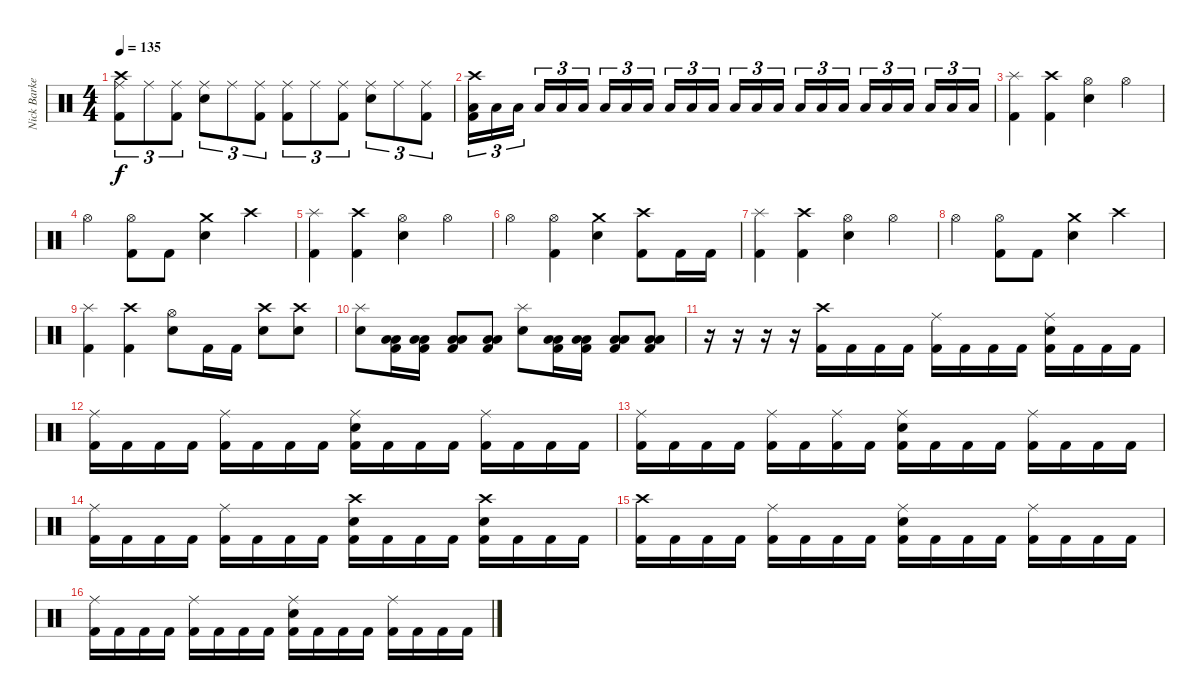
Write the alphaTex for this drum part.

\track ("Nick Barker" "Nick Barke") {instrument percussion}
\staff {score}
\articulation defaults
\ts (4 4)
\tempo 135
\clef neutral
\ks c
("Crash high (hit)" "Ride (middle)" "Kick (hit) 2").8{tu (3 2) dy f} "Ride (middle)".8{tu (3 2)} ("Ride (middle)" "Kick (hit) 2").8{tu (3 2)} ("Ride (middle)" "Electric Snare (hit)").8{tu (3 2)} "Ride (middle)".8{tu (3 2)} ("Ride (middle)" "Kick (hit) 2").8{tu (3 2)} ("Ride (middle)" "Kick (hit) 2").8{tu (3 2)} "Ride (middle)".8{tu (3 2)} ("Ride (middle)" "Kick (hit) 2").8{tu (3 2)} ("Ride (middle)" "Electric Snare (hit)").8{tu (3 2)} "Ride (middle)".8{tu (3 2)} ("Ride (middle)" "Kick (hit) 2").8{tu (3 2)} |
("Crash high (hit)" "Low Tom (hit)" "Kick (hit) 2").16{tu (3 2)} "Low Tom (hit)".16{tu (3 2)} "Low Tom (hit)".16{tu (3 2)} "Low Tom (hit)".16{tu (3 2)} "Low Tom (hit)".16{tu (3 2)} "Low Tom (hit)".16{tu (3 2)} "Low Tom (hit)".16{tu (3 2)} "Low Tom (hit)".16{tu (3 2)} "Low Tom (hit)".16{tu (3 2)} "Low Tom (hit)".16{tu (3 2)} "Low Tom (hit)".16{tu (3 2)} "Low Tom (hit)".16{tu (3 2)} "Low Tom (hit)".16{tu (3 2)} "Low Tom (hit)".16{tu (3 2)} "Low Tom (hit)".16{tu (3 2)} "Low Tom (hit)".16{tu (3 2)} "Low Tom (hit)".16{tu (3 2)} "Low Tom (hit)".16{tu (3 2)} "Low Tom (hit)".16{tu (3 2)} "Low Tom (hit)".16{tu (3 2)} "Low Tom (hit)".16{tu (3 2)} "Low Tom (hit)".16{tu (3 2)} "Low Tom (hit)".16{tu (3 2)} "Low Tom (hit)".16{tu (3 2)} |
\section ("" "")
("Splash (hit)" "Kick (hit) 2").4 ("Crash high (hit)" "Kick (hit) 2").4 ("Hi-Hat (open)" "Electric Snare (hit)").4 "Hi-Hat (open)".4 |
"Hi-Hat (open)".4 ("Hi-Hat (open)" "Kick (hit) 2").8 "Kick (hit) 2".8 ("Crash medium (hit)" "Electric Snare (hit)").4 "Crash high (hit)".4 |
("Splash (hit)" "Kick (hit) 2").4 ("Crash high (hit)" "Kick (hit) 2").4 ("Hi-Hat (open)" "Electric Snare (hit)").4 "Hi-Hat (open)".4 |
"Hi-Hat (open)".4 ("Hi-Hat (open)" "Kick (hit) 2").4 ("Crash medium (hit)" "Electric Snare (hit)").4 ("Crash high (hit)" "Kick (hit) 2").8 "Kick (hit) 2".16 "Kick (hit) 2".16 |
("Splash (hit)" "Kick (hit) 2").4 ("Crash high (hit)" "Kick (hit) 2").4 ("Hi-Hat (open)" "Electric Snare (hit)").4 "Hi-Hat (open)".4 |
"Hi-Hat (open)".4 ("Hi-Hat (open)" "Kick (hit) 2").8 "Kick (hit) 2".8 ("Crash medium (hit)" "Electric Snare (hit)").4 "Crash high (hit)".4 |
("Splash (hit)" "Kick (hit) 2").4 ("Crash high (hit)" "Kick (hit) 2").4 ("Hi-Hat (open)" "Electric Snare (hit)").8 "Kick (hit) 2".16 "Kick (hit) 2".16 ("Crash high (hit)" "Electric Snare (hit)").8 ("Crash high (hit)" "Electric Snare (hit)").8 |
("Splash (hit)" "Electric Snare (hit)").8 ("Low Floor Tom (hit)" "Low Tom (hit)" "Kick (hit) 2").16 ("Low Floor Tom (hit)" "Low Tom (hit)" "Kick (hit) 2").16 ("Low Floor Tom (hit)" "Low Tom (hit)" "Kick (hit) 2").8 ("Low Floor Tom (hit)" "Low Tom (hit)" "Kick (hit) 2").8 ("Splash (hit)" "Electric Snare (hit)").8 ("Low Floor Tom (hit)" "Low Tom (hit)" "Kick (hit) 2").16 ("Low Floor Tom (hit)" "Low Tom (hit)" "Kick (hit) 2").16 ("Low Floor Tom (hit)" "Low Tom (hit)" "Kick (hit) 2").8 ("Low Floor Tom (hit)" "Low Tom (hit)" "Kick (hit) 2").8 |
r.16 r.16 r.16 r.16 ("Crash high (hit)" "Kick (hit) 2").16 "Kick (hit) 2".16 "Kick (hit) 2".16 "Kick (hit) 2".16 ("Ride (middle)" "Kick (hit) 2").16 "Kick (hit) 2".16 "Kick (hit) 2".16 "Kick (hit) 2".16 ("Ride (middle)" "Electric Snare (hit)" "Kick (hit) 2").16 "Kick (hit) 2".16 "Kick (hit) 2".16 "Kick (hit) 2".16 |
("Ride (middle)" "Kick (hit) 2").16 "Kick (hit) 2".16 "Kick (hit) 2".16 "Kick (hit) 2".16 ("Ride (middle)" "Kick (hit) 2").16 "Kick (hit) 2".16 "Kick (hit) 2".16 "Kick (hit) 2".16 ("Ride (middle)" "Electric Snare (hit)" "Kick (hit) 2").16 "Kick (hit) 2".16 "Kick (hit) 2".16 "Kick (hit) 2".16 ("Ride (middle)" "Kick (hit) 2").16 "Kick (hit) 2".16 "Kick (hit) 2".16 "Kick (hit) 2".16 |
("Ride (middle)" "Kick (hit) 2").16 "Kick (hit) 2".16 "Kick (hit) 2".16 "Kick (hit) 2".16 ("Ride (middle)" "Kick (hit) 2").16 "Kick (hit) 2".16 ("Ride (middle)" "Kick (hit) 2").16 "Kick (hit) 2".16 ("Ride (middle)" "Electric Snare (hit)" "Kick (hit) 2").16 "Kick (hit) 2".16 "Kick (hit) 2".16 "Kick (hit) 2".16 ("Ride (middle)" "Kick (hit) 2").16 "Kick (hit) 2".16 "Kick (hit) 2".16 "Kick (hit) 2".16 |
("Ride (middle)" "Kick (hit) 2").16 "Kick (hit) 2".16 "Kick (hit) 2".16 "Kick (hit) 2".16 ("Ride (middle)" "Kick (hit) 2").16 "Kick (hit) 2".16 "Kick (hit) 2".16 "Kick (hit) 2".16 ("Crash high (hit)" "Electric Snare (hit)" "Kick (hit) 2").16 "Kick (hit) 2".16 "Kick (hit) 2".16 "Kick (hit) 2".16 ("Crash high (hit)" "Electric Snare (hit)" "Kick (hit) 2").16 "Kick (hit) 2".16 "Kick (hit) 2".16 "Kick (hit) 2".16 |
("Crash high (hit)" "Kick (hit) 2").16 "Kick (hit) 2".16 "Kick (hit) 2".16 "Kick (hit) 2".16 ("Ride (middle)" "Kick (hit) 2").16 "Kick (hit) 2".16 "Kick (hit) 2".16 "Kick (hit) 2".16 ("Ride (middle)" "Electric Snare (hit)" "Kick (hit) 2").16 "Kick (hit) 2".16 "Kick (hit) 2".16 "Kick (hit) 2".16 ("Ride (middle)" "Kick (hit) 2").16 "Kick (hit) 2".16 "Kick (hit) 2".16 "Kick (hit) 2".16 |
("Ride (middle)" "Kick (hit) 2").16 "Kick (hit) 2".16 "Kick (hit) 2".16 "Kick (hit) 2".16 ("Ride (middle)" "Kick (hit) 2").16 "Kick (hit) 2".16 "Kick (hit) 2".16 "Kick (hit) 2".16 ("Ride (middle)" "Electric Snare (hit)" "Kick (hit) 2").16 "Kick (hit) 2".16 "Kick (hit) 2".16 "Kick (hit) 2".16 ("Ride (middle)" "Kick (hit) 2").16 "Kick (hit) 2".16 "Kick (hit) 2".16 "Kick (hit) 2".16
